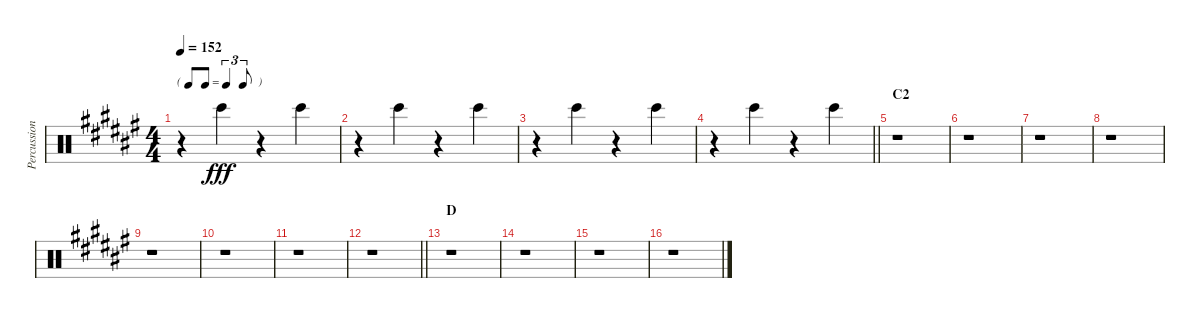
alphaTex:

\track ("Percussion" "Percussion") {instrument percussion}
\staff {score}
\articulation defaults
\ts (4 4)
\tf triplet8th
\tempo 152
\clef neutral
\ks f#
r.4{dy fff} "Bongo High (hit)".4 r.4 "Bongo High (hit)".4 |
r.4 "Bongo High (hit)".4 r.4 "Bongo High (hit)".4 |
r.4 "Bongo High (hit)".4 r.4 "Bongo High (hit)".4 |
\barLineRight lightlight
r.4 "Bongo High (hit)".4 r.4 "Bongo High (hit)".4 |
\section ("" "C2")
r.1 |
r.1 |
r.1 |
r.1 |
r.1 |
r.1 |
r.1 |
\barLineRight lightlight
r.1 |
\section ("" "D")
r.1 |
r.1 |
r.1 |
r.1
